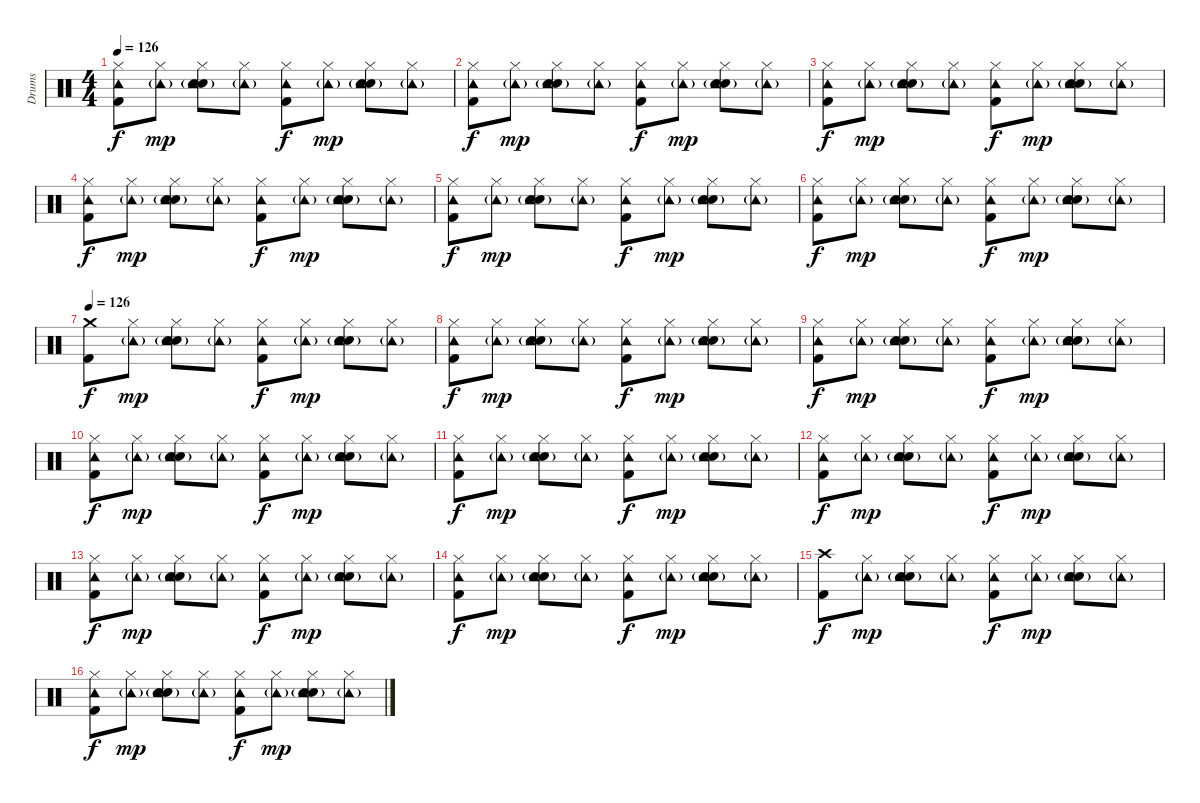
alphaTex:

\track ("Drums" "Drums") {instrument percussion}
\staff {score}
\articulation defaults
\ts (4 4)
\tempo 126
\clef neutral
\ks c
("Kick (hit) 2" "Hi-Hat (closed)" "Tambourine (hit)").8{dy f} ("Hi-Hat (closed)" "Tambourine (hit)"{g}).8{dy mp} ("Snare (hit) 2" "Hi-Hat (closed)" "Tambourine (hit)" "Hand Clap (hit)"{g}).8 ("Hi-Hat (closed)" "Tambourine (hit)"{g}).8 ("Kick (hit) 2" "Hi-Hat (closed)" "Tambourine (hit)").8{dy f} ("Hi-Hat (closed)" "Tambourine (hit)"{g}).8{dy mp} ("Snare (hit) 2" "Hi-Hat (closed)" "Tambourine (hit)" "Hand Clap (hit)"{g}).8 ("Hi-Hat (closed)" "Tambourine (hit)"{g}).8 |
("Kick (hit) 2" "Hi-Hat (closed)" "Tambourine (hit)").8{dy f} ("Hi-Hat (closed)" "Tambourine (hit)"{g}).8{dy mp} ("Snare (hit) 2" "Hi-Hat (closed)" "Tambourine (hit)" "Hand Clap (hit)"{g}).8 ("Hi-Hat (closed)" "Tambourine (hit)"{g}).8 ("Kick (hit) 2" "Hi-Hat (closed)" "Tambourine (hit)").8{dy f} ("Hi-Hat (closed)" "Tambourine (hit)"{g}).8{dy mp} ("Snare (hit) 2" "Hi-Hat (closed)" "Tambourine (hit)" "Hand Clap (hit)"{g}).8 ("Hi-Hat (closed)" "Tambourine (hit)"{g}).8 |
("Kick (hit) 2" "Hi-Hat (closed)" "Tambourine (hit)").8{dy f} ("Hi-Hat (closed)" "Tambourine (hit)"{g}).8{dy mp} ("Snare (hit) 2" "Hi-Hat (closed)" "Tambourine (hit)" "Hand Clap (hit)"{g}).8 ("Hi-Hat (closed)" "Tambourine (hit)"{g}).8 ("Kick (hit) 2" "Hi-Hat (closed)" "Tambourine (hit)").8{dy f} ("Hi-Hat (closed)" "Tambourine (hit)"{g}).8{dy mp} ("Snare (hit) 2" "Hi-Hat (closed)" "Tambourine (hit)" "Hand Clap (hit)"{g}).8 ("Hi-Hat (closed)" "Tambourine (hit)"{g}).8 |
("Kick (hit) 2" "Hi-Hat (closed)" "Tambourine (hit)").8{dy f} ("Hi-Hat (closed)" "Tambourine (hit)"{g}).8{dy mp} ("Snare (hit) 2" "Hi-Hat (closed)" "Tambourine (hit)" "Hand Clap (hit)"{g}).8 ("Hi-Hat (closed)" "Tambourine (hit)"{g}).8 ("Kick (hit) 2" "Hi-Hat (closed)" "Tambourine (hit)").8{dy f} ("Hi-Hat (closed)" "Tambourine (hit)"{g}).8{dy mp} ("Snare (hit) 2" "Hi-Hat (closed)" "Tambourine (hit)" "Hand Clap (hit)"{g}).8 ("Hi-Hat (closed)" "Tambourine (hit)"{g}).8 |
("Kick (hit) 2" "Hi-Hat (closed)" "Tambourine (hit)").8{dy f} ("Hi-Hat (closed)" "Tambourine (hit)"{g}).8{dy mp} ("Snare (hit) 2" "Hi-Hat (closed)" "Tambourine (hit)" "Hand Clap (hit)"{g}).8 ("Hi-Hat (closed)" "Tambourine (hit)"{g}).8 ("Kick (hit) 2" "Hi-Hat (closed)" "Tambourine (hit)").8{dy f} ("Hi-Hat (closed)" "Tambourine (hit)"{g}).8{dy mp} ("Snare (hit) 2" "Hi-Hat (closed)" "Tambourine (hit)" "Hand Clap (hit)"{g}).8 ("Hi-Hat (closed)" "Tambourine (hit)"{g}).8 |
("Kick (hit) 2" "Hi-Hat (closed)" "Tambourine (hit)").8{dy f} ("Hi-Hat (closed)" "Tambourine (hit)"{g}).8{dy mp} ("Snare (hit) 2" "Hi-Hat (closed)" "Tambourine (hit)" "Hand Clap (hit)"{g}).8 ("Hi-Hat (closed)" "Tambourine (hit)"{g}).8 ("Kick (hit) 2" "Hi-Hat (closed)" "Tambourine (hit)").8{dy f} ("Hi-Hat (closed)" "Tambourine (hit)"{g}).8{dy mp} ("Snare (hit) 2" "Hi-Hat (closed)" "Tambourine (hit)" "Hand Clap (hit)"{g}).8 ("Hi-Hat (closed)" "Tambourine (hit)"{g}).8 |
\section ("" "")
\tempo 126
("Kick (hit) 2" "Crash medium (hit)").8{dy f} ("Hi-Hat (closed)" "Tambourine (hit)"{g}).8{dy mp} ("Snare (hit) 2" "Hi-Hat (closed)" "Tambourine (hit)" "Hand Clap (hit)"{g}).8 ("Hi-Hat (closed)" "Tambourine (hit)"{g}).8 ("Kick (hit) 2" "Hi-Hat (closed)" "Tambourine (hit)").8{dy f} ("Hi-Hat (closed)" "Tambourine (hit)"{g}).8{dy mp} ("Snare (hit) 2" "Hi-Hat (closed)" "Tambourine (hit)" "Hand Clap (hit)"{g}).8 ("Hi-Hat (closed)" "Tambourine (hit)"{g}).8 |
("Kick (hit) 2" "Hi-Hat (closed)" "Tambourine (hit)").8{dy f} ("Hi-Hat (closed)" "Tambourine (hit)"{g}).8{dy mp} ("Snare (hit) 2" "Hi-Hat (closed)" "Tambourine (hit)" "Hand Clap (hit)"{g}).8 ("Hi-Hat (closed)" "Tambourine (hit)"{g}).8 ("Kick (hit) 2" "Hi-Hat (closed)" "Tambourine (hit)").8{dy f} ("Hi-Hat (closed)" "Tambourine (hit)"{g}).8{dy mp} ("Snare (hit) 2" "Hi-Hat (closed)" "Tambourine (hit)" "Hand Clap (hit)"{g}).8 ("Hi-Hat (closed)" "Tambourine (hit)"{g}).8 |
("Kick (hit) 2" "Hi-Hat (closed)" "Tambourine (hit)").8{dy f} ("Hi-Hat (closed)" "Tambourine (hit)"{g}).8{dy mp} ("Snare (hit) 2" "Hi-Hat (closed)" "Tambourine (hit)" "Hand Clap (hit)"{g}).8 ("Hi-Hat (closed)" "Tambourine (hit)"{g}).8 ("Kick (hit) 2" "Hi-Hat (closed)" "Tambourine (hit)").8{dy f} ("Hi-Hat (closed)" "Tambourine (hit)"{g}).8{dy mp} ("Snare (hit) 2" "Hi-Hat (closed)" "Tambourine (hit)" "Hand Clap (hit)"{g}).8 ("Hi-Hat (closed)" "Tambourine (hit)"{g}).8 |
("Kick (hit) 2" "Hi-Hat (closed)" "Tambourine (hit)").8{dy f} ("Hi-Hat (closed)" "Tambourine (hit)"{g}).8{dy mp} ("Snare (hit) 2" "Hi-Hat (closed)" "Tambourine (hit)" "Hand Clap (hit)"{g}).8 ("Hi-Hat (closed)" "Tambourine (hit)"{g}).8 ("Kick (hit) 2" "Hi-Hat (closed)" "Tambourine (hit)").8{dy f} ("Hi-Hat (closed)" "Tambourine (hit)"{g}).8{dy mp} ("Snare (hit) 2" "Hi-Hat (closed)" "Tambourine (hit)" "Hand Clap (hit)"{g}).8 ("Hi-Hat (closed)" "Tambourine (hit)"{g}).8 |
("Kick (hit) 2" "Hi-Hat (closed)" "Tambourine (hit)").8{dy f} ("Hi-Hat (closed)" "Tambourine (hit)"{g}).8{dy mp} ("Snare (hit) 2" "Hi-Hat (closed)" "Tambourine (hit)" "Hand Clap (hit)"{g}).8 ("Hi-Hat (closed)" "Tambourine (hit)"{g}).8 ("Kick (hit) 2" "Hi-Hat (closed)" "Tambourine (hit)").8{dy f} ("Hi-Hat (closed)" "Tambourine (hit)"{g}).8{dy mp} ("Snare (hit) 2" "Hi-Hat (closed)" "Tambourine (hit)" "Hand Clap (hit)"{g}).8 ("Hi-Hat (closed)" "Tambourine (hit)"{g}).8 |
("Kick (hit) 2" "Hi-Hat (closed)" "Tambourine (hit)").8{dy f} ("Hi-Hat (closed)" "Tambourine (hit)"{g}).8{dy mp} ("Snare (hit) 2" "Hi-Hat (closed)" "Tambourine (hit)" "Hand Clap (hit)"{g}).8 ("Hi-Hat (closed)" "Tambourine (hit)"{g}).8 ("Kick (hit) 2" "Hi-Hat (closed)" "Tambourine (hit)").8{dy f} ("Hi-Hat (closed)" "Tambourine (hit)"{g}).8{dy mp} ("Snare (hit) 2" "Hi-Hat (closed)" "Tambourine (hit)" "Hand Clap (hit)"{g}).8 ("Hi-Hat (closed)" "Tambourine (hit)"{g}).8 |
("Kick (hit) 2" "Hi-Hat (closed)" "Tambourine (hit)").8{dy f} ("Hi-Hat (closed)" "Tambourine (hit)"{g}).8{dy mp} ("Snare (hit) 2" "Hi-Hat (closed)" "Tambourine (hit)" "Hand Clap (hit)"{g}).8 ("Hi-Hat (closed)" "Tambourine (hit)"{g}).8 ("Kick (hit) 2" "Hi-Hat (closed)" "Tambourine (hit)").8{dy f} ("Hi-Hat (closed)" "Tambourine (hit)"{g}).8{dy mp} ("Snare (hit) 2" "Hi-Hat (closed)" "Tambourine (hit)" "Hand Clap (hit)"{g}).8 ("Hi-Hat (closed)" "Tambourine (hit)"{g}).8 |
\section ("" "")
("Kick (hit) 2" "Hi-Hat (closed)" "Tambourine (hit)").8{dy f} ("Hi-Hat (closed)" "Tambourine (hit)"{g}).8{dy mp} ("Snare (hit) 2" "Hi-Hat (closed)" "Tambourine (hit)" "Hand Clap (hit)"{g}).8 ("Hi-Hat (closed)" "Tambourine (hit)"{g}).8 ("Kick (hit) 2" "Hi-Hat (closed)" "Tambourine (hit)").8{dy f} ("Hi-Hat (closed)" "Tambourine (hit)"{g}).8{dy mp} ("Snare (hit) 2" "Hi-Hat (closed)" "Tambourine (hit)" "Hand Clap (hit)"{g}).8 ("Hi-Hat (closed)" "Tambourine (hit)"{g}).8 |
("Kick (hit) 2" "Crash high (hit)").8{dy f} ("Hi-Hat (closed)" "Tambourine (hit)"{g}).8{dy mp} ("Snare (hit) 2" "Hi-Hat (closed)" "Tambourine (hit)" "Hand Clap (hit)"{g}).8 ("Hi-Hat (closed)" "Tambourine (hit)"{g}).8 ("Kick (hit) 2" "Hi-Hat (closed)" "Tambourine (hit)").8{dy f} ("Hi-Hat (closed)" "Tambourine (hit)"{g}).8{dy mp} ("Snare (hit) 2" "Hi-Hat (closed)" "Tambourine (hit)" "Hand Clap (hit)"{g}).8 ("Hi-Hat (closed)" "Tambourine (hit)"{g}).8 |
("Kick (hit) 2" "Hi-Hat (closed)" "Tambourine (hit)").8{dy f} ("Hi-Hat (closed)" "Tambourine (hit)"{g}).8{dy mp} ("Snare (hit) 2" "Hi-Hat (closed)" "Tambourine (hit)" "Hand Clap (hit)"{g}).8 ("Hi-Hat (closed)" "Tambourine (hit)"{g}).8 ("Kick (hit) 2" "Hi-Hat (closed)" "Tambourine (hit)").8{dy f} ("Hi-Hat (closed)" "Tambourine (hit)"{g}).8{dy mp} ("Snare (hit) 2" "Hi-Hat (closed)" "Tambourine (hit)" "Hand Clap (hit)"{g}).8 ("Hi-Hat (closed)" "Tambourine (hit)"{g}).8
